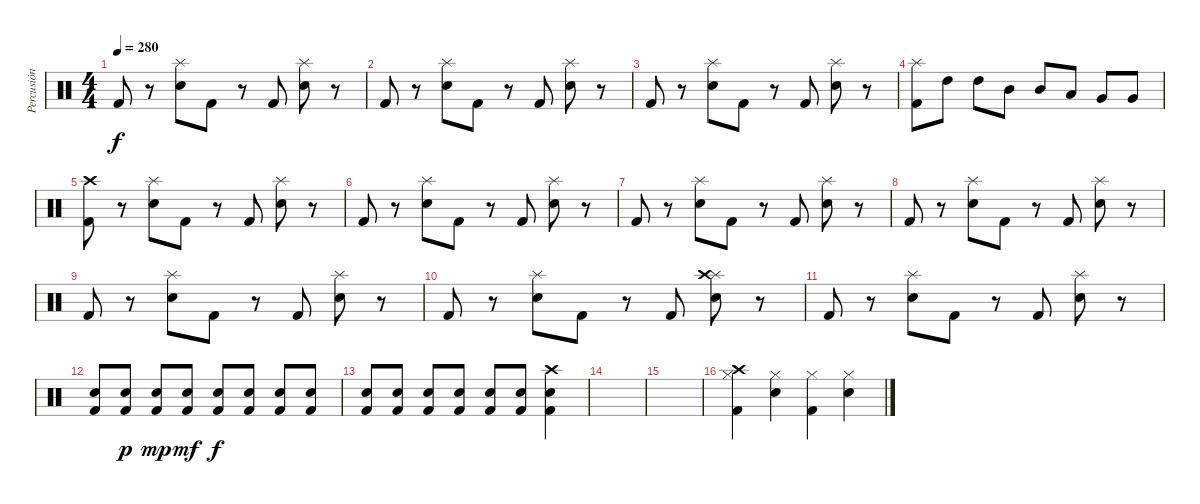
\track ("Percusión" "Percusión") {instrument percussion}
\staff {score}
\articulation defaults
\ts (4 4)
\tempo 280
\clef neutral
\ks c "Kick (hit) 2".8{dy f}
r.8 ("Snare (hit) 2" "Splash (hit)").8 "Kick (hit) 2".8 r.8 "Kick (hit) 2".8 ("Snare (hit) 2" "Splash (hit)").8 r.8 |
"Kick (hit) 2".8 r.8 ("Snare (hit) 2" "Splash (hit)").8 "Kick (hit) 2".8 r.8 "Kick (hit) 2".8 ("Snare (hit) 2" "Splash (hit)").8 r.8 |
"Kick (hit) 2".8 r.8 ("Snare (hit) 2" "Splash (hit)").8 "Kick (hit) 2".8 r.8 "Kick (hit) 2".8 ("Snare (hit) 2" "Splash (hit)").8 r.8 |
("Splash (hit)" "Kick (hit) 2").8 "High Tom (hit)".8 "High Tom (hit)".8 "Mid Tom (hit)".8 "Mid Tom (hit)".8 "Low Tom (hit)".8 "Very Low Tom (hit)".8 "Very Low Tom (hit)".8 |
("Crash high (hit)" "Kick (hit) 2").8 r.8 ("Snare (hit) 2" "Splash (hit)").8 "Kick (hit) 2".8 r.8 "Kick (hit) 2".8 ("Snare (hit) 2" "Splash (hit)").8 r.8 |
"Kick (hit) 2".8 r.8 ("Snare (hit) 2" "Splash (hit)").8 "Kick (hit) 2".8 r.8 "Kick (hit) 2".8 ("Snare (hit) 2" "Splash (hit)").8 r.8 |
"Kick (hit) 2".8 r.8 ("Snare (hit) 2" "Splash (hit)").8 "Kick (hit) 2".8 r.8 "Kick (hit) 2".8 ("Snare (hit) 2" "Splash (hit)").8 r.8 |
"Kick (hit) 2".8 r.8 ("Snare (hit) 2" "Splash (hit)").8 "Kick (hit) 2".8 r.8 "Kick (hit) 2".8 ("Snare (hit) 2" "Splash (hit)").8 r.8 |
"Kick (hit) 2".8 r.8 ("Snare (hit) 2" "Splash (hit)").8 "Kick (hit) 2".8 r.8 "Kick (hit) 2".8 ("Snare (hit) 2" "Splash (hit)").8 r.8 |
"Kick (hit) 2".8 r.8 ("Snare (hit) 2" "Splash (hit)").8 "Kick (hit) 2".8 r.8 "Kick (hit) 2".8 ("Snare (hit) 2" "Splash (hit)" "Crash high (hit)").8 r.8 |
"Kick (hit) 2".8 r.8 ("Snare (hit) 2" "Splash (hit)").8 "Kick (hit) 2".8 r.8 "Kick (hit) 2".8 ("Snare (hit) 2" "Splash (hit)").8 r.8 |
("Snare (hit) 2" "Kick (hit) 2").8 ("Snare (hit) 2" "Kick (hit) 2").8{dy p} ("Snare (hit) 2" "Kick (hit) 2").8{dy mp} ("Snare (hit) 2" "Kick (hit) 2").8{dy mf} ("Snare (hit) 2" "Kick (hit) 2").8{dy f} ("Snare (hit) 2" "Kick (hit) 2").8 ("Snare (hit) 2" "Kick (hit) 2").8 ("Snare (hit) 2" "Kick (hit) 2").8 |
("Snare (hit) 2" "Kick (hit) 2").8 ("Snare (hit) 2" "Kick (hit) 2").8 ("Snare (hit) 2" "Kick (hit) 2").8 ("Snare (hit) 2" "Kick (hit) 2").8 ("Snare (hit) 2" "Kick (hit) 2").8 ("Snare (hit) 2" "Kick (hit) 2").8 ("Snare (hit) 2" "Crash high (hit)" "Kick (hit) 2").4 |
|
|
("Crash high (hit)" "Hi-Hat (closed)" "Kick (hit) 2").4 ("Snare (hit) 2" "Hi-Hat (closed)").4 ("Hi-Hat (closed)" "Kick (hit) 2").4 ("Snare (hit) 2" "Hi-Hat (closed)").4
